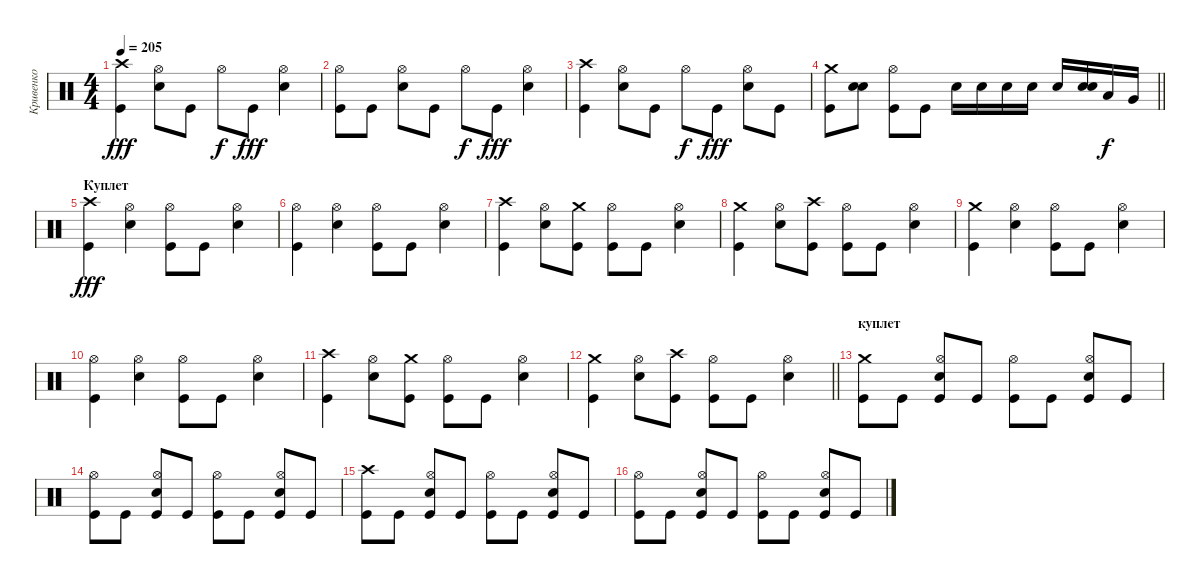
\track ("Кривенко" "Кривенко") {instrument percussion}
\staff {score}
\articulation defaults
\ts (4 4)
\tempo 205
\clef neutral
\ks c
("Crash high (hit)" "Kick (hit)").4{dy fff} ("Hi-Hat (open)" "Electric Snare (hit)").8 "Kick (hit)".8 "Hi-Hat (open)".8{dy f} "Kick (hit)".8{dy fff} ("Hi-Hat (open)" "Electric Snare (hit)").4 |
("Hi-Hat (open)" "Kick (hit)").8 "Kick (hit)".8 ("Hi-Hat (open)" "Electric Snare (hit)").8 "Kick (hit)".8 "Hi-Hat (open)".8{dy f} "Kick (hit)".8{dy fff} ("Hi-Hat (open)" "Electric Snare (hit)").4 |
("Crash high (hit)" "Kick (hit)").4 ("Hi-Hat (open)" "Electric Snare (hit)").8 "Kick (hit)".8 "Hi-Hat (open)".8{dy f} "Kick (hit)".8{dy fff} ("Hi-Hat (open)" "Electric Snare (hit)").8 "Kick (hit)".8 |
\barLineRight lightlight
("Crash medium (hit)" "Kick (hit)").8 ("Electric Snare (hit)" "Electric Snare (hit)").8 ("Hi-Hat (open)" "Kick (hit)").8 "Kick (hit)".8 "Electric Snare (hit)".16 "Electric Snare (hit)".16 "Electric Snare (hit)".16 "Electric Snare (hit)".16 "Electric Snare (hit)".16 ("Electric Snare (hit)" "Electric Snare (hit)").16 "Low Tom (hit)".16{dy f} "Very Low Tom (hit)".16 |
\section ("" "Куплет")
("Crash high (hit)" "Kick (hit)").4{dy fff} ("Hi-Hat (open)" "Electric Snare (hit)").4 ("Hi-Hat (open)" "Kick (hit)").8 "Kick (hit)".8 ("Hi-Hat (open)" "Electric Snare (hit)").4 |
("Hi-Hat (open)" "Kick (hit)").4 ("Hi-Hat (open)" "Electric Snare (hit)").4 ("Hi-Hat (open)" "Kick (hit)").8 "Kick (hit)".8 ("Hi-Hat (open)" "Electric Snare (hit)").4 |
("Crash high (hit)" "Kick (hit)").4 ("Hi-Hat (open)" "Electric Snare (hit)").8 ("Crash medium (hit)" "Kick (hit)").8 ("Hi-Hat (open)" "Kick (hit)").8 "Kick (hit)".8 ("Hi-Hat (open)" "Electric Snare (hit)").4 |
("Crash medium (hit)" "Kick (hit)").4 ("Hi-Hat (open)" "Electric Snare (hit)").8 ("Crash high (hit)" "Kick (hit)").8 ("Hi-Hat (open)" "Kick (hit)").8 "Kick (hit)".8 ("Hi-Hat (open)" "Electric Snare (hit)").4 |
("Crash medium (hit)" "Kick (hit)").4 ("Hi-Hat (open)" "Electric Snare (hit)").4 ("Hi-Hat (open)" "Kick (hit)").8 "Kick (hit)".8 ("Hi-Hat (open)" "Electric Snare (hit)").4 |
("Hi-Hat (open)" "Kick (hit)").4 ("Hi-Hat (open)" "Electric Snare (hit)").4 ("Hi-Hat (open)" "Kick (hit)").8 "Kick (hit)".8 ("Hi-Hat (open)" "Electric Snare (hit)").4 |
("Crash high (hit)" "Kick (hit)").4 ("Hi-Hat (open)" "Electric Snare (hit)").8 ("Crash medium (hit)" "Kick (hit)").8 ("Hi-Hat (open)" "Kick (hit)").8 "Kick (hit)".8 ("Hi-Hat (open)" "Electric Snare (hit)").4 |
\barLineRight lightlight
("Crash medium (hit)" "Kick (hit)").4 ("Hi-Hat (open)" "Electric Snare (hit)").8 ("Crash high (hit)" "Kick (hit)").8 ("Hi-Hat (open)" "Kick (hit)").8 "Kick (hit)".8 ("Hi-Hat (open)" "Electric Snare (hit)").4 |
\section ("" "куплет")
("Crash medium (hit)" "Kick (hit)").8 "Kick (hit)".8 ("Hi-Hat (open)" "Electric Snare (hit)" "Kick (hit)").8 "Kick (hit)".8 ("Hi-Hat (open)" "Kick (hit)").8 "Kick (hit)".8 ("Hi-Hat (open)" "Electric Snare (hit)" "Kick (hit)").8 "Kick (hit)".8 |
("Hi-Hat (open)" "Kick (hit)").8 "Kick (hit)".8 ("Hi-Hat (open)" "Electric Snare (hit)" "Kick (hit)").8 "Kick (hit)".8 ("Hi-Hat (open)" "Kick (hit)").8 "Kick (hit)".8 ("Hi-Hat (open)" "Electric Snare (hit)" "Kick (hit)").8 "Kick (hit)".8 |
("Crash high (hit)" "Kick (hit)").8 "Kick (hit)".8 ("Hi-Hat (open)" "Electric Snare (hit)" "Kick (hit)").8 "Kick (hit)".8 ("Hi-Hat (open)" "Kick (hit)").8 "Kick (hit)".8 ("Hi-Hat (open)" "Electric Snare (hit)" "Kick (hit)").8 "Kick (hit)".8 |
("Hi-Hat (open)" "Kick (hit)").8 "Kick (hit)".8 ("Hi-Hat (open)" "Electric Snare (hit)" "Kick (hit)").8 "Kick (hit)".8 ("Hi-Hat (open)" "Kick (hit)").8 "Kick (hit)".8 ("Hi-Hat (open)" "Electric Snare (hit)" "Kick (hit)").8 "Kick (hit)".8
